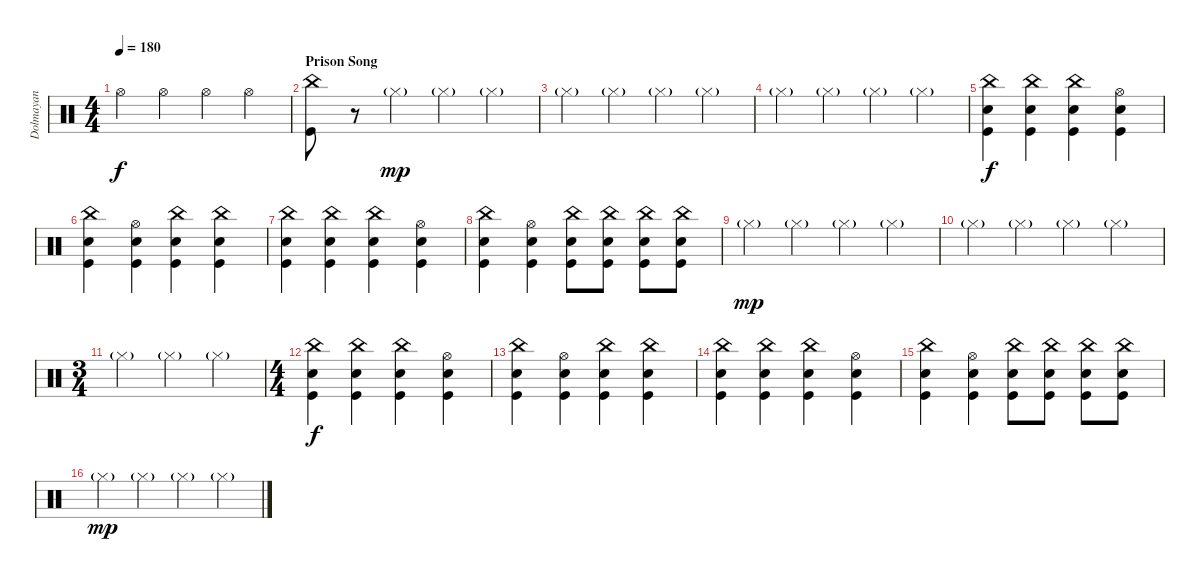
\track ("Dolmayan" "Dolmayan") {instrument percussion}
\staff {score}
\articulation defaults
\ts (4 4)
\tempo 180
\clef neutral
\ks c "Hi-Hat (open)".4{dy f} "Hi-Hat (open)".4 "Hi-Hat (open)".4 "Hi-Hat (open)".4
|
\section ("" "Prison Song")
("China (hit)" "Kick (hit)").8 r.8 "Hi-Hat (closed)"{g}.4{dy mp} "Hi-Hat (closed)"{g}.4 "Hi-Hat (closed)"{g}.4 |
"Hi-Hat (closed)"{g}.4 "Hi-Hat (closed)"{g}.4 "Hi-Hat (closed)"{g}.4 "Hi-Hat (closed)"{g}.4 |
"Hi-Hat (closed)"{g}.4 "Hi-Hat (closed)"{g}.4 "Hi-Hat (closed)"{g}.4 "Hi-Hat (closed)"{g}.4 |
("China (hit)" "Snare (hit) 2" "Kick (hit)").4{dy f} ("China (hit)" "Snare (hit) 2" "Kick (hit)").4 ("China (hit)" "Snare (hit) 2" "Kick (hit)").4 ("Hi-Hat (open)" "Snare (hit) 2" "Kick (hit)").4 |
("China (hit)" "Snare (hit) 2" "Kick (hit)").4 ("Hi-Hat (open)" "Snare (hit) 2" "Kick (hit)").4 ("China (hit)" "Snare (hit) 2" "Kick (hit)").4 ("China (hit)" "Snare (hit) 2" "Kick (hit)").4 |
("China (hit)" "Snare (hit) 2" "Kick (hit)").4 ("China (hit)" "Snare (hit) 2" "Kick (hit)").4 ("China (hit)" "Snare (hit) 2" "Kick (hit)").4 ("Hi-Hat (open)" "Snare (hit) 2" "Kick (hit)").4 |
("China (hit)" "Snare (hit) 2" "Kick (hit)").4 ("Hi-Hat (open)" "Snare (hit) 2" "Kick (hit)").4 ("China (hit)" "Snare (hit) 2" "Kick (hit)").8 ("China (hit)" "Snare (hit) 2" "Kick (hit)").8 ("China (hit)" "Snare (hit) 2" "Kick (hit)").8 ("China (hit)" "Snare (hit) 2" "Kick (hit)").8 |
"Hi-Hat (closed)"{g}.4{dy mp} "Hi-Hat (closed)"{g}.4 "Hi-Hat (closed)"{g}.4 "Hi-Hat (closed)"{g}.4 |
"Hi-Hat (closed)"{g}.4 "Hi-Hat (closed)"{g}.4 "Hi-Hat (closed)"{g}.4 "Hi-Hat (closed)"{g}.4 |
\ts (3 4)
"Hi-Hat (closed)"{g}.4 "Hi-Hat (closed)"{g}.4 "Hi-Hat (closed)"{g}.4 |
\ts (4 4)
("China (hit)" "Snare (hit) 2" "Kick (hit)").4{dy f} ("China (hit)" "Snare (hit) 2" "Kick (hit)").4 ("China (hit)" "Snare (hit) 2" "Kick (hit)").4 ("Hi-Hat (open)" "Snare (hit) 2" "Kick (hit)").4 |
("China (hit)" "Snare (hit) 2" "Kick (hit)").4 ("Hi-Hat (open)" "Snare (hit) 2" "Kick (hit)").4 ("China (hit)" "Snare (hit) 2" "Kick (hit)").4 ("China (hit)" "Snare (hit) 2" "Kick (hit)").4 |
("China (hit)" "Snare (hit) 2" "Kick (hit)").4 ("China (hit)" "Snare (hit) 2" "Kick (hit)").4 ("China (hit)" "Snare (hit) 2" "Kick (hit)").4 ("Hi-Hat (open)" "Snare (hit) 2" "Kick (hit)").4 |
("China (hit)" "Snare (hit) 2" "Kick (hit)").4 ("Hi-Hat (open)" "Snare (hit) 2" "Kick (hit)").4 ("China (hit)" "Snare (hit) 2" "Kick (hit)").8 ("China (hit)" "Snare (hit) 2" "Kick (hit)").8 ("China (hit)" "Snare (hit) 2" "Kick (hit)").8 ("China (hit)" "Snare (hit) 2" "Kick (hit)").8 |
"Hi-Hat (closed)"{g}.4{dy mp} "Hi-Hat (closed)"{g}.4 "Hi-Hat (closed)"{g}.4 "Hi-Hat (closed)"{g}.4
